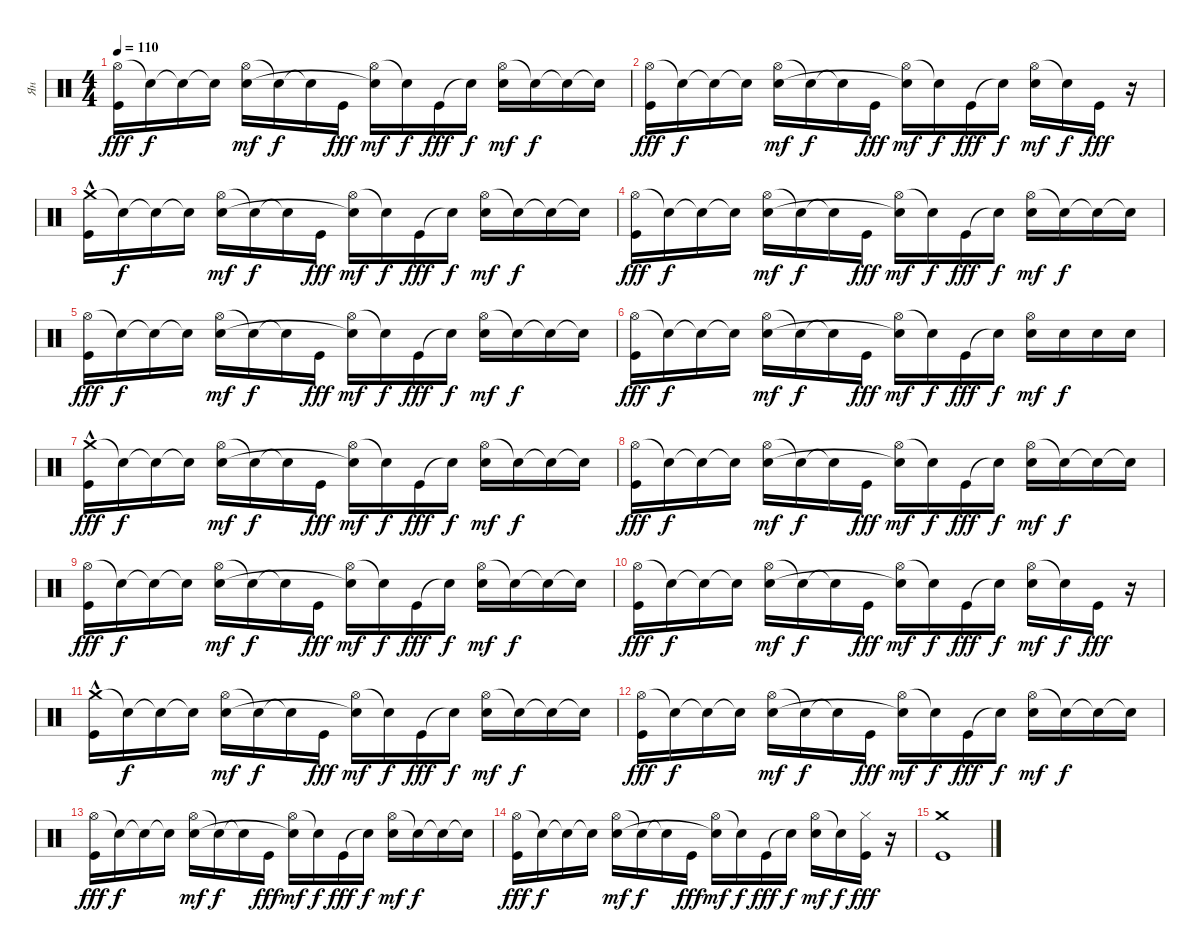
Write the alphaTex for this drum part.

\track ("Ян " "Ян ") {instrument percussion}
\staff
\articulation defaults
\ts (4 4)
\tempo 110
\clef neutral
\ks c
("Hi-Hat (open)" "Kick (hit)").16{dy fff} "Snare (hit)"{t}.16{dy f} "Snare (hit)"{t}.16 "Snare (hit)"{t}.16 ("Hi-Hat (open)" "Snare (hit) 2").16{dy mf} "Snare (hit)"{t}.16{dy f} "Snare (hit)"{t}.16 "Kick (hit)".16{dy fff} ("Hi-Hat (open)" "Snare (hit)"{t}).16{dy mf} "Snare (hit)"{t}.16{dy f} "Kick (hit)".16{dy fff} "Snare (hit)"{t}.16{dy f} ("Hi-Hat (open)" "Snare (hit) 2").16{dy mf} "Snare (hit)"{t}.16{dy f} "Snare (hit)"{t}.16 "Snare (hit)"{t}.16 |
("Hi-Hat (open)" "Kick (hit)").16{dy fff} "Snare (hit)"{t}.16{dy f} "Snare (hit)"{t}.16 "Snare (hit)"{t}.16 ("Hi-Hat (open)" "Snare (hit) 2").16{dy mf} "Snare (hit)"{t}.16{dy f} "Snare (hit)"{t}.16 "Kick (hit)".16{dy fff} ("Hi-Hat (open)" "Snare (hit)"{t}).16{dy mf} "Snare (hit)"{t}.16{dy f} "Kick (hit)".16{dy fff} "Snare (hit)"{t}.16{dy f} ("Hi-Hat (open)" "Snare (hit) 2").16{dy mf} "Snare (hit)"{t}.16{dy f} "Kick (hit)".16{dy fff} r.16 |
("Crash medium (hit)" "Kick (hit)"{hac}).16 "Snare (hit)"{t}.16{dy f} "Snare (hit)"{t}.16 "Snare (hit)"{t}.16 ("Hi-Hat (open)" "Snare (hit) 2").16{dy mf} "Snare (hit)"{t}.16{dy f} "Snare (hit)"{t}.16 "Kick (hit)".16{dy fff} ("Hi-Hat (open)" "Snare (hit)"{t}).16{dy mf} "Snare (hit)"{t}.16{dy f} "Kick (hit)".16{dy fff} "Snare (hit)"{t}.16{dy f} ("Hi-Hat (open)" "Snare (hit) 2").16{dy mf} "Snare (hit)"{t}.16{dy f} "Snare (hit)"{t}.16 "Snare (hit)"{t}.16 |
("Hi-Hat (open)" "Kick (hit)").16{dy fff} "Snare (hit)"{t}.16{dy f} "Snare (hit)"{t}.16 "Snare (hit)"{t}.16 ("Hi-Hat (open)" "Snare (hit) 2").16{dy mf} "Snare (hit)"{t}.16{dy f} "Snare (hit)"{t}.16 "Kick (hit)".16{dy fff} ("Hi-Hat (open)" "Snare (hit)"{t}).16{dy mf} "Snare (hit)"{t}.16{dy f} "Kick (hit)".16{dy fff} "Snare (hit)"{t}.16{dy f} ("Hi-Hat (open)" "Snare (hit) 2").16{dy mf} "Snare (hit)"{t}.16{dy f} "Snare (hit)"{t}.16 "Snare (hit)"{t}.16 |
("Hi-Hat (open)" "Kick (hit)").16{dy fff} "Snare (hit)"{t}.16{dy f} "Snare (hit)"{t}.16 "Snare (hit)"{t}.16 ("Hi-Hat (open)" "Snare (hit) 2").16{dy mf} "Snare (hit)"{t}.16{dy f} "Snare (hit)"{t}.16 "Kick (hit)".16{dy fff} ("Hi-Hat (open)" "Snare (hit)"{t}).16{dy mf} "Snare (hit)"{t}.16{dy f} "Kick (hit)".16{dy fff} "Snare (hit)"{t}.16{dy f} ("Hi-Hat (open)" "Snare (hit) 2").16{dy mf} "Snare (hit)"{t}.16{dy f} "Snare (hit)"{t}.16 "Snare (hit)"{t}.16 |
("Hi-Hat (open)" "Kick (hit)").16{dy fff} "Snare (hit)"{t}.16{dy f} "Snare (hit)"{t}.16 "Snare (hit)"{t}.16 ("Hi-Hat (open)" "Snare (hit) 2").16{dy mf} "Snare (hit)"{t}.16{dy f} "Snare (hit)"{t}.16 "Kick (hit)".16{dy fff} ("Hi-Hat (open)" "Snare (hit)"{t}).16{dy mf} "Snare (hit)"{t}.16{dy f} "Kick (hit)".16{dy fff} "Snare (hit)"{t}.16{dy f} ("Hi-Hat (open)" "Snare (hit) 2").16{dy mf} "Snare (hit) 2".16{dy f} "Snare (hit) 2".16 "Snare (hit) 2".16 |
("Crash medium (hit)" "Kick (hit)"{hac}).16{dy fff} "Snare (hit)"{t}.16{dy f} "Snare (hit)"{t}.16 "Snare (hit)"{t}.16 ("Hi-Hat (open)" "Snare (hit) 2").16{dy mf} "Snare (hit)"{t}.16{dy f} "Snare (hit)"{t}.16 "Kick (hit)".16{dy fff} ("Hi-Hat (open)" "Snare (hit)"{t}).16{dy mf} "Snare (hit)"{t}.16{dy f} "Kick (hit)".16{dy fff} "Snare (hit)"{t}.16{dy f} ("Hi-Hat (open)" "Snare (hit) 2").16{dy mf} "Snare (hit)"{t}.16{dy f} "Snare (hit)"{t}.16 "Snare (hit)"{t}.16 |
("Hi-Hat (open)" "Kick (hit)").16{dy fff} "Snare (hit)"{t}.16{dy f} "Snare (hit)"{t}.16 "Snare (hit)"{t}.16 ("Hi-Hat (open)" "Snare (hit) 2").16{dy mf} "Snare (hit)"{t}.16{dy f} "Snare (hit)"{t}.16 "Kick (hit)".16{dy fff} ("Hi-Hat (open)" "Snare (hit)"{t}).16{dy mf} "Snare (hit)"{t}.16{dy f} "Kick (hit)".16{dy fff} "Snare (hit)"{t}.16{dy f} ("Hi-Hat (open)" "Snare (hit) 2").16{dy mf} "Snare (hit)"{t}.16{dy f} "Snare (hit)"{t}.16 "Snare (hit)"{t}.16 |
("Hi-Hat (open)" "Kick (hit)").16{dy fff} "Snare (hit)"{t}.16{dy f} "Snare (hit)"{t}.16 "Snare (hit)"{t}.16 ("Hi-Hat (open)" "Snare (hit) 2").16{dy mf} "Snare (hit)"{t}.16{dy f} "Snare (hit)"{t}.16 "Kick (hit)".16{dy fff} ("Hi-Hat (open)" "Snare (hit)"{t}).16{dy mf} "Snare (hit)"{t}.16{dy f} "Kick (hit)".16{dy fff} "Snare (hit)"{t}.16{dy f} ("Hi-Hat (open)" "Snare (hit) 2").16{dy mf} "Snare (hit)"{t}.16{dy f} "Snare (hit)"{t}.16 "Snare (hit)"{t}.16 |
("Hi-Hat (open)" "Kick (hit)").16{dy fff} "Snare (hit)"{t}.16{dy f} "Snare (hit)"{t}.16 "Snare (hit)"{t}.16 ("Hi-Hat (open)" "Snare (hit) 2").16{dy mf} "Snare (hit)"{t}.16{dy f} "Snare (hit)"{t}.16 "Kick (hit)".16{dy fff} ("Hi-Hat (open)" "Snare (hit)"{t}).16{dy mf} "Snare (hit)"{t}.16{dy f} "Kick (hit)".16{dy fff} "Snare (hit)"{t}.16{dy f} ("Hi-Hat (open)" "Snare (hit) 2").16{dy mf} "Snare (hit)"{t}.16{dy f} "Kick (hit)".16{dy fff} r.16 |
("Crash medium (hit)" "Kick (hit)"{hac}).16 "Snare (hit)"{t}.16{dy f} "Snare (hit)"{t}.16 "Snare (hit)"{t}.16 ("Hi-Hat (open)" "Snare (hit) 2").16{dy mf} "Snare (hit)"{t}.16{dy f} "Snare (hit)"{t}.16 "Kick (hit)".16{dy fff} ("Hi-Hat (open)" "Snare (hit)"{t}).16{dy mf} "Snare (hit)"{t}.16{dy f} "Kick (hit)".16{dy fff} "Snare (hit)"{t}.16{dy f} ("Hi-Hat (open)" "Snare (hit) 2").16{dy mf} "Snare (hit)"{t}.16{dy f} "Snare (hit)"{t}.16 "Snare (hit)"{t}.16 |
("Hi-Hat (open)" "Kick (hit)").16{dy fff} "Snare (hit)"{t}.16{dy f} "Snare (hit)"{t}.16 "Snare (hit)"{t}.16 ("Hi-Hat (open)" "Snare (hit) 2").16{dy mf} "Snare (hit)"{t}.16{dy f} "Snare (hit)"{t}.16 "Kick (hit)".16{dy fff} ("Hi-Hat (open)" "Snare (hit)"{t}).16{dy mf} "Snare (hit)"{t}.16{dy f} "Kick (hit)".16{dy fff} "Snare (hit)"{t}.16{dy f} ("Hi-Hat (open)" "Snare (hit) 2").16{dy mf} "Snare (hit)"{t}.16{dy f} "Snare (hit)"{t}.16 "Snare (hit)"{t}.16 |
("Hi-Hat (open)" "Kick (hit)").16{dy fff} "Snare (hit)"{t}.16{dy f} "Snare (hit)"{t}.16 "Snare (hit)"{t}.16 ("Hi-Hat (open)" "Snare (hit) 2").16{dy mf} "Snare (hit)"{t}.16{dy f} "Snare (hit)"{t}.16 "Kick (hit)".16{dy fff} ("Hi-Hat (open)" "Snare (hit)"{t}).16{dy mf} "Snare (hit)"{t}.16{dy f} "Kick (hit)".16{dy fff} "Snare (hit)"{t}.16{dy f} ("Hi-Hat (open)" "Snare (hit) 2").16{dy mf} "Snare (hit)"{t}.16{dy f} "Snare (hit)"{t}.16 "Snare (hit)"{t}.16 |
("Hi-Hat (open)" "Kick (hit)").16{dy fff} "Snare (hit)"{t}.16{dy f} "Snare (hit)"{t}.16 "Snare (hit)"{t}.16 ("Hi-Hat (open)" "Snare (hit) 2").16{dy mf} "Snare (hit)"{t}.16{dy f} "Snare (hit)"{t}.16 "Kick (hit)".16{dy fff} ("Hi-Hat (open)" "Snare (hit)"{t}).16{dy mf} "Snare (hit)"{t}.16{dy f} "Kick (hit)".16{dy fff} "Snare (hit)"{t}.16{dy f} ("Hi-Hat (open)" "Snare (hit) 2").16{dy mf} "Snare (hit)"{t}.16{dy f} ("Hi-Hat (closed)" "Kick (hit)").16{dy fff} r.16 |
("Crash medium (hit)" "Kick (hit)").1
